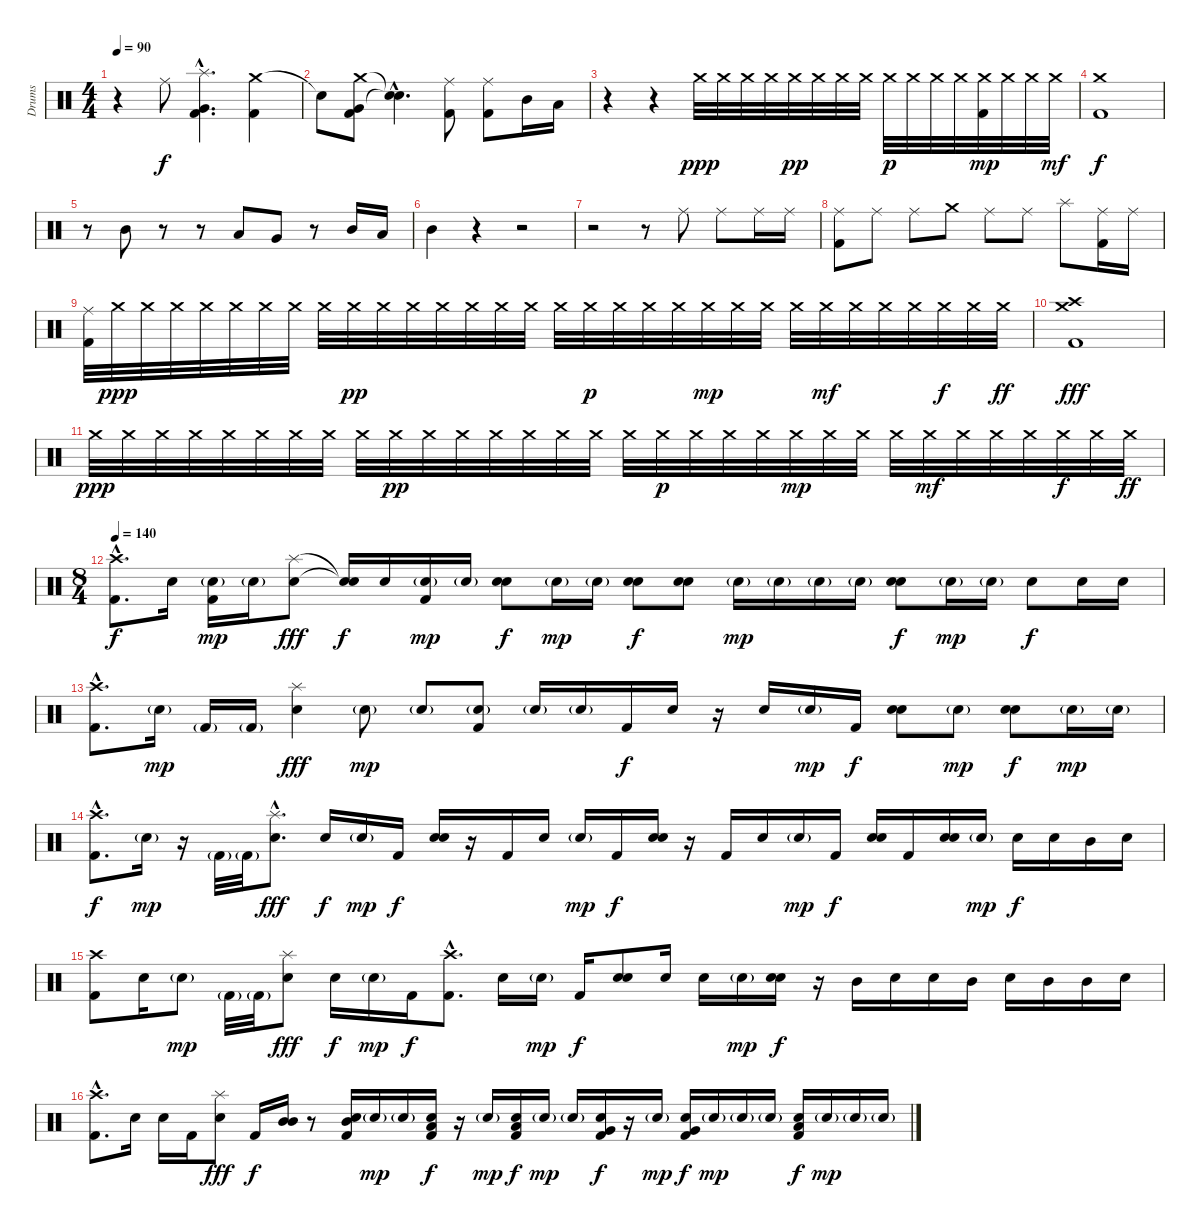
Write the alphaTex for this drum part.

\track ("Drums" "Drums") {instrument percussion}
\staff {score}
\articulation defaults
\ts (4 4)
\tempo 90
\clef neutral
\ks c
r.4{dy f} "Ride (middle)".8 ("Splash (hit)"{hac} "Very Low Tom (hit)"{hac} "Kick (hit) 2"{hac}).4{d} ("Crash medium (hit)" "Kick (hit) 2").4 |
"Snare (hit)"{t}.8 ("Crash medium (hit)" "Very Low Tom (hit)" "Kick (hit) 2").8 ("Snare (hit)"{hac t} "Snare (hit)"{hac t}).4{d} ("Ride (middle)" "Kick (hit) 2").8 ("Ride (middle)" "Kick (hit) 2").8 "Mid Tom (hit)".16 "Low Tom (hit)".16 |
r.4 r.4 "Crash medium (hit)".32{dy ppp} "Crash medium (hit)".32 "Crash medium (hit)".32 "Crash medium (hit)".32 "Crash medium (hit)".32{dy pp} "Crash medium (hit)".32 "Crash medium (hit)".32 "Crash medium (hit)".32 "Crash medium (hit)".32{dy p} "Crash medium (hit)".32 "Crash medium (hit)".32 "Crash medium (hit)".32 ("Crash medium (hit)" "Kick (hit) 2").32{dy mp} "Crash medium (hit)".32 "Crash medium (hit)".32 "Crash medium (hit)".32{dy mf} |
("Crash medium (hit)" "Kick (hit) 2").1{dy f} |
r.8 "Mid Tom (hit)".8 r.8 r.8 "Low Tom (hit)".8 "Very Low Tom (hit)".8 r.8 "Mid Tom (hit)".16 "Low Tom (hit)".16 |
"Mid Tom (hit)".4 r.4 r.2 |
r.2 r.8 "Ride (middle)".8 "Ride (middle)".8 "Ride (middle)".16 "Ride (middle)".16 |
("Ride (middle)" "Kick (hit) 2").8 "Ride (middle)".8 "Ride (middle)".8 "Crash medium (hit)".8 "Ride (middle)".8 "Ride (middle)".8 "Splash (hit)".8 ("Ride (middle)" "Kick (hit) 2").16 "Ride (middle)".16 |
("Ride (middle)" "Kick (hit) 2").32 "Crash medium (hit)".32{dy ppp} "Crash medium (hit)".32 "Crash medium (hit)".32 "Crash medium (hit)".32 "Crash medium (hit)".32 "Crash medium (hit)".32 "Crash medium (hit)".32 "Crash medium (hit)".32 "Crash medium (hit)".32{dy pp} "Crash medium (hit)".32 "Crash medium (hit)".32 "Crash medium (hit)".32 "Crash medium (hit)".32 "Crash medium (hit)".32 "Crash medium (hit)".32 "Crash medium (hit)".32 "Crash medium (hit)".32{dy p} "Crash medium (hit)".32 "Crash medium (hit)".32 "Crash medium (hit)".32 "Crash medium (hit)".32{dy mp} "Crash medium (hit)".32 "Crash medium (hit)".32 "Crash medium (hit)".32 "Crash medium (hit)".32{dy mf} "Crash medium (hit)".32 "Crash medium (hit)".32 "Crash medium (hit)".32 "Crash medium (hit)".32{dy f} "Crash medium (hit)".32 "Crash medium (hit)".32{dy ff} |
("Crash high (hit)" "Crash medium (hit)" "Kick (hit) 2").1{dy fff} |
"Crash medium (hit)".32{dy ppp} "Crash medium (hit)".32 "Crash medium (hit)".32 "Crash medium (hit)".32 "Crash medium (hit)".32 "Crash medium (hit)".32 "Crash medium (hit)".32 "Crash medium (hit)".32 "Crash medium (hit)".32 "Crash medium (hit)".32{dy pp} "Crash medium (hit)".32 "Crash medium (hit)".32 "Crash medium (hit)".32 "Crash medium (hit)".32 "Crash medium (hit)".32 "Crash medium (hit)".32 "Crash medium (hit)".32 "Crash medium (hit)".32{dy p} "Crash medium (hit)".32 "Crash medium (hit)".32 "Crash medium (hit)".32 "Crash medium (hit)".32{dy mp} "Crash medium (hit)".32 "Crash medium (hit)".32 "Crash medium (hit)".32 "Crash medium (hit)".32{dy mf} "Crash medium (hit)".32 "Crash medium (hit)".32 "Crash medium (hit)".32 "Crash medium (hit)".32{dy f} "Crash medium (hit)".32 "Crash medium (hit)".32{dy ff} |
\ts (8 4)
\tempo 140
("Crash high (hit)"{hac} "Kick (hit) 2"{hac}).8{d dy f} "Snare (hit) 2".16 ("Snare (hit) 2"{g} "Kick (hit) 2").16{dy mp} "Snare (hit) 2"{g}.16 ("Splash (hit)" "Snare (hit) 2").8{dy fff} ("Snare (hit)"{t} "Snare (hit)"{t}).16{dy f} "Snare (hit) 2".16 ("Snare (hit) 2"{g} "Kick (hit) 2").16{dy mp} "Snare (hit) 2"{g}.16 ("Snare (hit) 2" "Snare (hit) 2").8{dy f} "Snare (hit) 2"{g}.16{dy mp} "Snare (hit) 2"{g}.16 ("Snare (hit) 2" "Snare (hit) 2").8{dy f} ("Snare (hit) 2" "Snare (hit) 2").8 "Snare (hit) 2"{g}.16{dy mp} "Snare (hit) 2"{g}.16 "Snare (hit) 2"{g}.16 "Snare (hit) 2"{g}.16 ("Snare (hit) 2" "Snare (hit) 2").8{dy f} "Snare (hit) 2"{g}.16{dy mp} "Snare (hit) 2"{g}.16 "Snare (hit) 2".8{dy f} "Snare (hit) 2".16 "Snare (hit) 2".16 |
("Crash high (hit)"{hac} "Kick (hit) 2"{hac}).8{d} "Snare (hit) 2"{g}.16{dy mp} "Kick (hit) 2"{g}.16 "Kick (hit) 2"{g}.16 ("Splash (hit)" "Snare (hit) 2").4{dy fff} "Snare (hit) 2"{g}.8{dy mp} "Snare (hit) 2"{g}.8 ("Snare (hit) 2"{g} "Kick (hit) 2").8 "Snare (hit) 2"{g}.16 "Snare (hit) 2"{g}.16 "Kick (hit) 2".16{dy f} "Snare (hit) 2".16 r.16 "Snare (hit) 2".16 "Snare (hit) 2"{g}.16{dy mp} "Kick (hit) 2".16{dy f} ("Snare (hit) 2" "Snare (hit) 2").8 "Snare (hit) 2"{g}.8{dy mp} ("Snare (hit) 2" "Snare (hit) 2").8{dy f} "Snare (hit) 2"{g}.16{dy mp} "Snare (hit) 2"{g}.16 |
("Crash high (hit)"{hac} "Kick (hit) 2"{hac}).8{d dy f} "Snare (hit) 2"{g}.16{dy mp} r.16 "Kick (hit) 2"{g}.32 "Kick (hit) 2"{g}.32 ("Splash (hit)"{hac} "Snare (hit) 2"{hac}).8{d dy fff} "Snare (hit) 2".16{dy f} "Snare (hit) 2"{g}.16{dy mp} "Kick (hit) 2".16{dy f} ("Snare (hit) 2" "Snare (hit) 2").16 r.16 "Kick (hit) 2".16 "Snare (hit) 2".16 "Snare (hit) 2"{g}.16{dy mp} "Kick (hit) 2".16{dy f} ("Snare (hit) 2" "Snare (hit) 2").16 r.16 "Kick (hit) 2".16 "Snare (hit) 2".16 "Snare (hit) 2"{g}.16{dy mp} "Kick (hit) 2".16{dy f} ("Snare (hit) 2" "Snare (hit) 2").16 "Kick (hit) 2".16 ("Snare (hit) 2" "Snare (hit) 2").16 "Snare (hit) 2"{g}.16{dy mp} "Snare (hit) 2".16{dy f} "Snare (hit) 2".16 "Mid Tom (hit)".16 "Snare (hit) 2".16 |
("Crash high (hit)" "Kick (hit) 2").8 "Snare (hit) 2".16 "Snare (hit) 2"{g}.8{dy mp} "Kick (hit) 2"{g}.32 "Kick (hit) 2"{g}.32 ("Splash (hit)" "Snare (hit) 2").8{dy fff} "Snare (hit) 2".16{dy f} "Snare (hit) 2"{g}.16{dy mp} "Kick (hit) 2".16{dy f} ("Crash high (hit)"{hac} "Kick (hit) 2"{hac}).8{d} "Snare (hit) 2".16 "Snare (hit) 2"{g}.16{dy mp} "Kick (hit) 2".16{dy f} ("Snare (hit) 2" "Snare (hit) 2").8 "Snare (hit) 2".16 "Snare (hit) 2".16 "Snare (hit) 2"{g}.16{dy mp} ("Snare (hit) 2" "Snare (hit) 2").16{dy f} r.16 "Mid Tom (hit)".16 "Snare (hit) 2".16 "Snare (hit) 2".16 "Mid Tom (hit)".16 "Snare (hit) 2".16 "Mid Tom (hit)".16 "Mid Tom (hit)".16 "Snare (hit) 2".16 |
("Crash high (hit)"{hac} "Kick (hit) 2"{hac}).8{d} "Snare (hit) 2".16 "Snare (hit) 2".16 "Kick (hit) 2".16 ("Splash (hit)" "Snare (hit) 2").8{dy fff} "Kick (hit) 2".16{dy f} ("Mid Tom (hit)" "Mid Tom (hit)").16 r.8 ("Mid Tom (hit)" "Snare (hit) 2" "Kick (hit) 2").16 "Snare (hit) 2"{g}.16{dy mp} "Snare (hit) 2"{g}.16 ("Low Tom (hit)" "Snare (hit) 2" "Kick (hit) 2").16{dy f} r.16 "Snare (hit) 2"{g}.16{dy mp} ("Low Tom (hit)" "Snare (hit) 2" "Kick (hit) 2").16{dy f} "Snare (hit) 2"{g}.16{dy mp} "Snare (hit) 2"{g}.16 ("Very Low Tom (hit)" "Snare (hit) 2" "Kick (hit) 2").16{dy f} r.16 "Snare (hit) 2"{g}.16{dy mp} ("Very Low Tom (hit)" "Snare (hit) 2" "Kick (hit) 2").16{dy f} "Snare (hit) 2"{g}.16{dy mp} "Snare (hit) 2"{g}.16 "Snare (hit) 2"{g}.16 ("Low Floor Tom (hit)" "Snare (hit) 2" "Kick (hit) 2").16{dy f} "Snare (hit) 2"{g}.16{dy mp} "Snare (hit) 2"{g}.16 "Snare (hit) 2"{g}.16
